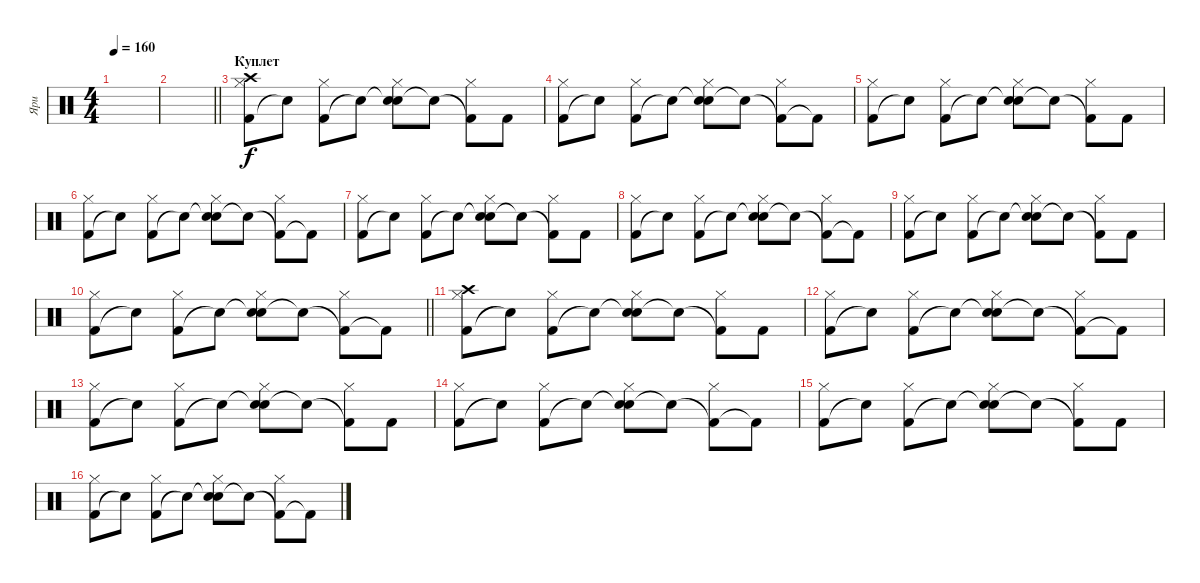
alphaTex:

\track ("Яри" "Яри") {instrument percussion}
\staff {score}
\articulation defaults
\ts (4 4)
\tempo 160
\clef neutral
\ks c
|
\barLineRight lightlight
|
\section ("" "Куплет")
("Kick (hit) 2" "Hi-Hat (closed)" "Crash high (hit)").8 "Snare (hit)"{t}.8 ("Kick (hit) 2" "Hi-Hat (closed)").8 "Snare (hit)"{t}.8 ("Snare (hit)"{t} "Hi-Hat (closed)" "Snare (hit) 2").8 "Snare (hit)"{t}.8 ("Kick (hit) 2"{t} "Hi-Hat (closed)").8 "Kick (hit) 2".8 |
("Kick (hit) 2" "Hi-Hat (closed)").8 "Snare (hit)"{t}.8 ("Kick (hit) 2" "Hi-Hat (closed)").8 "Snare (hit)"{t}.8 ("Snare (hit)"{t} "Hi-Hat (closed)" "Snare (hit) 2").8 "Snare (hit)"{t}.8 ("Kick (hit) 2"{t} "Hi-Hat (closed)").8 "Kick (hit) 2"{t}.8 |
("Kick (hit) 2" "Hi-Hat (closed)").8 "Snare (hit)"{t}.8 ("Kick (hit) 2" "Hi-Hat (closed)").8 "Snare (hit)"{t}.8 ("Snare (hit)"{t} "Hi-Hat (closed)" "Snare (hit) 2").8 "Snare (hit)"{t}.8 ("Kick (hit) 2"{t} "Hi-Hat (closed)").8 "Kick (hit) 2".8 |
("Kick (hit) 2" "Hi-Hat (closed)").8 "Snare (hit)"{t}.8 ("Kick (hit) 2" "Hi-Hat (closed)").8 "Snare (hit)"{t}.8 ("Snare (hit)"{t} "Hi-Hat (closed)" "Snare (hit) 2").8 "Snare (hit)"{t}.8 ("Kick (hit) 2"{t} "Hi-Hat (closed)").8 "Kick (hit) 2"{t}.8 |
("Kick (hit) 2" "Hi-Hat (closed)").8 "Snare (hit)"{t}.8 ("Kick (hit) 2" "Hi-Hat (closed)").8 "Snare (hit)"{t}.8 ("Snare (hit)"{t} "Hi-Hat (closed)" "Snare (hit) 2").8 "Snare (hit)"{t}.8 ("Kick (hit) 2"{t} "Hi-Hat (closed)").8 "Kick (hit) 2".8 |
("Kick (hit) 2" "Hi-Hat (closed)").8 "Snare (hit)"{t}.8 ("Kick (hit) 2" "Hi-Hat (closed)").8 "Snare (hit)"{t}.8 ("Snare (hit)"{t} "Hi-Hat (closed)" "Snare (hit) 2").8 "Snare (hit)"{t}.8 ("Kick (hit) 2"{t} "Hi-Hat (closed)").8 "Kick (hit) 2"{t}.8 |
("Kick (hit) 2" "Hi-Hat (closed)").8 "Snare (hit)"{t}.8 ("Kick (hit) 2" "Hi-Hat (closed)").8 "Snare (hit)"{t}.8 ("Snare (hit)"{t} "Hi-Hat (closed)" "Snare (hit) 2").8 "Snare (hit)"{t}.8 ("Kick (hit) 2"{t} "Hi-Hat (closed)").8 "Kick (hit) 2".8 |
\barLineRight lightlight
("Kick (hit) 2" "Hi-Hat (closed)").8 "Snare (hit)"{t}.8 ("Kick (hit) 2" "Hi-Hat (closed)").8 "Snare (hit)"{t}.8 ("Snare (hit)"{t} "Hi-Hat (closed)" "Snare (hit) 2").8 "Snare (hit)"{t}.8 ("Kick (hit) 2"{t} "Hi-Hat (closed)").8 "Kick (hit) 2"{t}.8 |
\section ("" " ")
("Kick (hit) 2" "Hi-Hat (closed)" "Crash high (hit)").8 "Snare (hit)"{t}.8 ("Kick (hit) 2" "Hi-Hat (closed)").8 "Snare (hit)"{t}.8 ("Snare (hit)"{t} "Hi-Hat (closed)" "Snare (hit) 2").8 "Snare (hit)"{t}.8 ("Kick (hit) 2"{t} "Hi-Hat (closed)").8 "Kick (hit) 2".8 |
("Kick (hit) 2" "Hi-Hat (closed)").8 "Snare (hit)"{t}.8 ("Kick (hit) 2" "Hi-Hat (closed)").8 "Snare (hit)"{t}.8 ("Snare (hit)"{t} "Hi-Hat (closed)" "Snare (hit) 2").8 "Snare (hit)"{t}.8 ("Kick (hit) 2"{t} "Hi-Hat (closed)").8 "Kick (hit) 2"{t}.8 |
("Kick (hit) 2" "Hi-Hat (closed)").8 "Snare (hit)"{t}.8 ("Kick (hit) 2" "Hi-Hat (closed)").8 "Snare (hit)"{t}.8 ("Snare (hit)"{t} "Hi-Hat (closed)" "Snare (hit) 2").8 "Snare (hit)"{t}.8 ("Kick (hit) 2"{t} "Hi-Hat (closed)").8 "Kick (hit) 2".8 |
("Kick (hit) 2" "Hi-Hat (closed)").8 "Snare (hit)"{t}.8 ("Kick (hit) 2" "Hi-Hat (closed)").8 "Snare (hit)"{t}.8 ("Snare (hit)"{t} "Hi-Hat (closed)" "Snare (hit) 2").8 "Snare (hit)"{t}.8 ("Kick (hit) 2"{t} "Hi-Hat (closed)").8 "Kick (hit) 2"{t}.8 |
("Kick (hit) 2" "Hi-Hat (closed)").8 "Snare (hit)"{t}.8 ("Kick (hit) 2" "Hi-Hat (closed)").8 "Snare (hit)"{t}.8 ("Snare (hit)"{t} "Hi-Hat (closed)" "Snare (hit) 2").8 "Snare (hit)"{t}.8 ("Kick (hit) 2"{t} "Hi-Hat (closed)").8 "Kick (hit) 2".8 |
("Kick (hit) 2" "Hi-Hat (closed)").8 "Snare (hit)"{t}.8 ("Kick (hit) 2" "Hi-Hat (closed)").8 "Snare (hit)"{t}.8 ("Snare (hit)"{t} "Hi-Hat (closed)" "Snare (hit) 2").8 "Snare (hit)"{t}.8 ("Kick (hit) 2"{t} "Hi-Hat (closed)").8 "Kick (hit) 2"{t}.8
